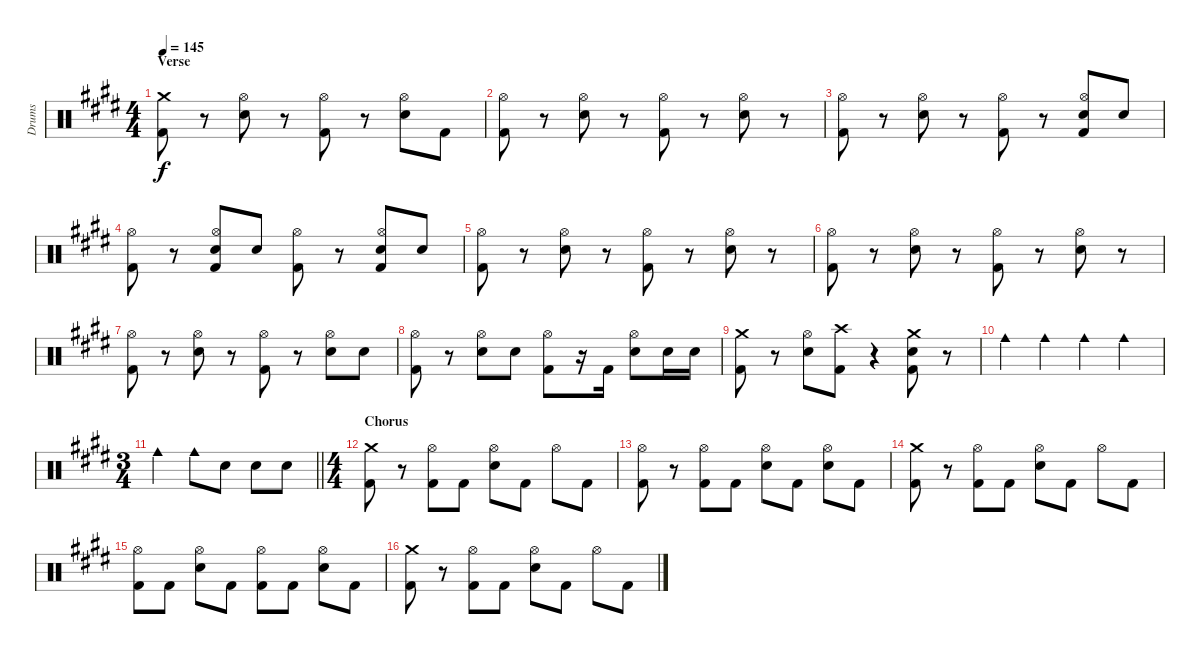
\track ("Drums" "Drums") {instrument percussion}
\staff {score}
\articulation defaults
\ts (4 4)
\section ("" "Verse")
\tempo 145
\clef neutral
\ks e
("Crash medium (hit)" "Kick (hit) 2").8{dy f} r.8 ("Hi-Hat (open)" "Electric Snare (hit)").8 r.8 ("Hi-Hat (open)" "Kick (hit) 2").8 r.8 ("Hi-Hat (open)" "Electric Snare (hit)").8 "Kick (hit) 2".8 |
("Hi-Hat (open)" "Kick (hit) 2").8 r.8 ("Hi-Hat (open)" "Electric Snare (hit)").8 r.8 ("Hi-Hat (open)" "Kick (hit) 2").8 r.8 ("Hi-Hat (open)" "Electric Snare (hit)").8 r.8 |
("Hi-Hat (open)" "Kick (hit) 2").8 r.8 ("Hi-Hat (open)" "Electric Snare (hit)").8 r.8 ("Hi-Hat (open)" "Kick (hit) 2").8 r.8 ("Hi-Hat (open)" "Electric Snare (hit)" "Kick (hit) 2").8 "Electric Snare (hit)".8 |
("Hi-Hat (open)" "Kick (hit) 2").8 r.8 ("Hi-Hat (open)" "Electric Snare (hit)" "Kick (hit) 2").8 "Electric Snare (hit)".8 ("Hi-Hat (open)" "Kick (hit) 2").8 r.8 ("Hi-Hat (open)" "Electric Snare (hit)" "Kick (hit) 2").8 "Electric Snare (hit)".8 |
("Hi-Hat (open)" "Kick (hit) 2").8 r.8 ("Hi-Hat (open)" "Electric Snare (hit)").8 r.8 ("Hi-Hat (open)" "Kick (hit) 2").8 r.8 ("Hi-Hat (open)" "Electric Snare (hit)").8 r.8 |
("Hi-Hat (open)" "Kick (hit) 2").8 r.8 ("Hi-Hat (open)" "Electric Snare (hit)").8 r.8 ("Hi-Hat (open)" "Kick (hit) 2").8 r.8 ("Hi-Hat (open)" "Electric Snare (hit)").8 r.8 |
("Hi-Hat (open)" "Kick (hit) 2").8 r.8 ("Hi-Hat (open)" "Electric Snare (hit)").8 r.8 ("Hi-Hat (open)" "Kick (hit) 2").8 r.8 ("Hi-Hat (open)" "Electric Snare (hit)").8 "Electric Snare (hit)".8 |
("Hi-Hat (open)" "Kick (hit) 2").8 r.8 ("Hi-Hat (open)" "Electric Snare (hit)").8 "Electric Snare (hit)".8 ("Hi-Hat (open)" "Kick (hit) 2").8 r.16 "Kick (hit) 2".16 ("Hi-Hat (open)" "Electric Snare (hit)").8 "Electric Snare (hit)".16 "Electric Snare (hit)".16 |
("Crash medium (hit)" "Kick (hit) 2").8 r.8 ("Hi-Hat (open)" "Electric Snare (hit)").8 ("Crash high (hit)" "Kick (hit) 2").8 r.4 ("Crash medium (hit)" "Electric Snare (hit)" "Kick (hit) 2").8 r.8 |
"Cowbell medium (hit)".4 "Cowbell medium (hit)".4 "Cowbell medium (hit)".4 "Cowbell medium (hit)".4 |
\ts (3 4)
\barLineRight lightlight "Cowbell medium (hit)".4 "Cowbell medium (hit)".8 "Electric Snare (hit)".8 "Electric Snare (hit)".8 "Electric Snare (hit)".8
|
\ts (4 4)
\section ("" "Chorus")
("Crash medium (hit)" "Kick (hit) 2").8 r.8 ("Hi-Hat (open)" "Kick (hit) 2").8 "Kick (hit) 2".8 ("Hi-Hat (open)" "Electric Snare (hit)").8 "Kick (hit) 2".8 "Hi-Hat (open)".8 "Kick (hit) 2".8 |
("Hi-Hat (open)" "Kick (hit) 2").8 r.8 ("Hi-Hat (open)" "Kick (hit) 2").8 "Kick (hit) 2".8 ("Hi-Hat (open)" "Electric Snare (hit)").8 "Kick (hit) 2".8 ("Hi-Hat (open)" "Electric Snare (hit)").8 "Kick (hit) 2".8 |
("Crash medium (hit)" "Kick (hit) 2").8 r.8 ("Hi-Hat (open)" "Kick (hit) 2").8 "Kick (hit) 2".8 ("Hi-Hat (open)" "Electric Snare (hit)").8 "Kick (hit) 2".8 "Hi-Hat (open)".8 "Kick (hit) 2".8 |
("Hi-Hat (open)" "Kick (hit) 2").8 "Kick (hit) 2".8 ("Hi-Hat (open)" "Electric Snare (hit)").8 "Kick (hit) 2".8 ("Hi-Hat (open)" "Kick (hit) 2").8 "Kick (hit) 2".8 ("Hi-Hat (open)" "Electric Snare (hit)").8 "Kick (hit) 2".8 |
("Crash medium (hit)" "Kick (hit) 2").8 r.8 ("Hi-Hat (open)" "Kick (hit) 2").8 "Kick (hit) 2".8 ("Hi-Hat (open)" "Electric Snare (hit)").8 "Kick (hit) 2".8 "Hi-Hat (open)".8 "Kick (hit) 2".8
